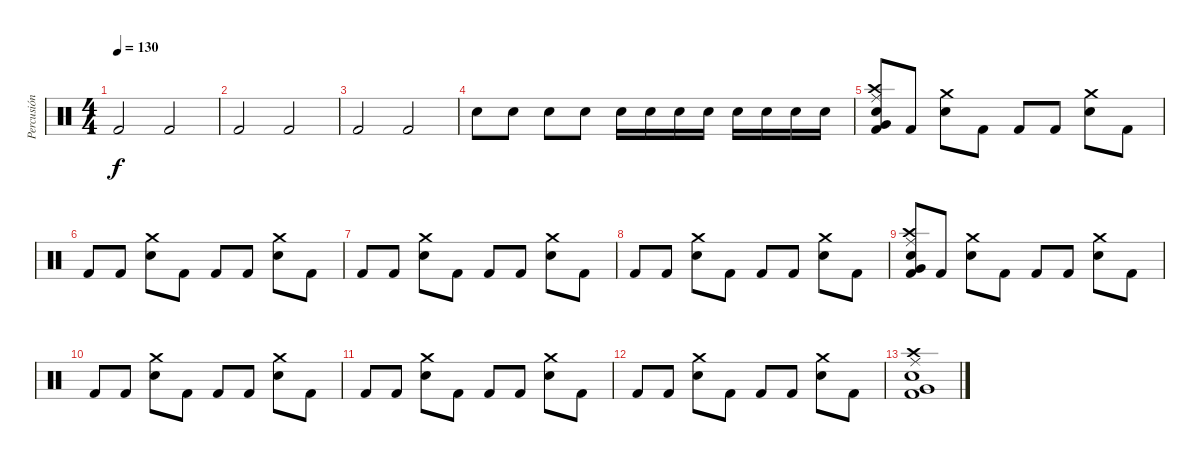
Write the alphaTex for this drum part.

\track ("Percusión" "Percusión") {instrument percussion}
\staff {score}
\articulation defaults
\ts (4 4)
\tempo 130
\clef neutral
\ks c "Kick (hit) 2".2{dy f} "Kick (hit) 2".2
|
"Kick (hit) 2".2 "Kick (hit) 2".2 |
"Kick (hit) 2".2 "Kick (hit) 2".2 |
"Electric Snare (hit)".8 "Electric Snare (hit)".8 "Electric Snare (hit)".8 "Electric Snare (hit)".8 "Electric Snare (hit)".16 "Electric Snare (hit)".16 "Electric Snare (hit)".16 "Electric Snare (hit)".16 "Electric Snare (hit)".16 "Electric Snare (hit)".16 "Electric Snare (hit)".16 "Electric Snare (hit)".16 |
("Kick (hit) 2" "Ride (middle)" "Electric Snare (hit)" "Crash high (hit)" "Very Low Tom (hit)").8 "Kick (hit) 2".8 ("Electric Snare (hit)" "Crash medium (hit)").8 "Kick (hit) 2".8 "Kick (hit) 2".8 "Kick (hit) 2".8 ("Electric Snare (hit)" "Crash medium (hit)").8 "Kick (hit) 2".8 |
"Kick (hit) 2".8 "Kick (hit) 2".8 ("Electric Snare (hit)" "Crash medium (hit)").8 "Kick (hit) 2".8 "Kick (hit) 2".8 "Kick (hit) 2".8 ("Electric Snare (hit)" "Crash medium (hit)").8 "Kick (hit) 2".8 |
"Kick (hit) 2".8 "Kick (hit) 2".8 ("Electric Snare (hit)" "Crash medium (hit)").8 "Kick (hit) 2".8 "Kick (hit) 2".8 "Kick (hit) 2".8 ("Electric Snare (hit)" "Crash medium (hit)").8 "Kick (hit) 2".8 |
"Kick (hit) 2".8 "Kick (hit) 2".8 ("Electric Snare (hit)" "Crash medium (hit)").8 "Kick (hit) 2".8 "Kick (hit) 2".8 "Kick (hit) 2".8 ("Electric Snare (hit)" "Crash medium (hit)").8 "Kick (hit) 2".8 |
("Kick (hit) 2" "Ride (middle)" "Electric Snare (hit)" "Crash high (hit)" "Very Low Tom (hit)").8 "Kick (hit) 2".8 ("Electric Snare (hit)" "Crash medium (hit)").8 "Kick (hit) 2".8 "Kick (hit) 2".8 "Kick (hit) 2".8 ("Electric Snare (hit)" "Crash medium (hit)").8 "Kick (hit) 2".8 |
"Kick (hit) 2".8 "Kick (hit) 2".8 ("Electric Snare (hit)" "Crash medium (hit)").8 "Kick (hit) 2".8 "Kick (hit) 2".8 "Kick (hit) 2".8 ("Electric Snare (hit)" "Crash medium (hit)").8 "Kick (hit) 2".8 |
"Kick (hit) 2".8 "Kick (hit) 2".8 ("Electric Snare (hit)" "Crash medium (hit)").8 "Kick (hit) 2".8 "Kick (hit) 2".8 "Kick (hit) 2".8 ("Electric Snare (hit)" "Crash medium (hit)").8 "Kick (hit) 2".8 |
"Kick (hit) 2".8 "Kick (hit) 2".8 ("Electric Snare (hit)" "Crash medium (hit)").8 "Kick (hit) 2".8 "Kick (hit) 2".8 "Kick (hit) 2".8 ("Electric Snare (hit)" "Crash medium (hit)").8 "Kick (hit) 2".8 |
("Kick (hit) 2" "Electric Snare (hit)" "Crash high (hit)" "Ride (middle)" "Very Low Tom (hit)").1
